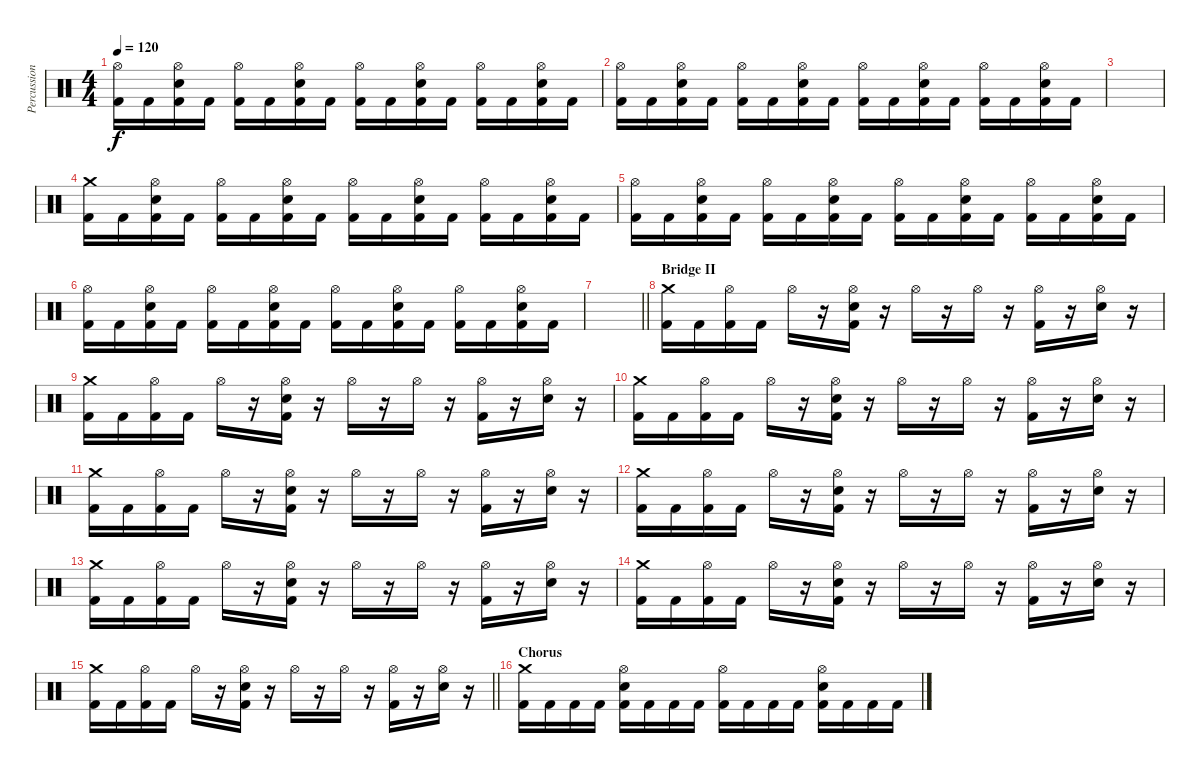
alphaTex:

\track ("Percussion" "Percussion") {instrument percussion}
\staff {score}
\articulation defaults
\ts (4 4)
\tempo 120
\clef neutral
\ks c
("Hi-Hat (open)" "Kick (hit) 2").16{dy f} "Kick (hit) 2".16 ("Hi-Hat (open)" "Electric Snare (hit)" "Kick (hit) 2").16 "Kick (hit) 2".16 ("Hi-Hat (open)" "Kick (hit) 2").16 "Kick (hit) 2".16 ("Hi-Hat (open)" "Electric Snare (hit)" "Kick (hit) 2").16 "Kick (hit) 2".16 ("Hi-Hat (open)" "Kick (hit) 2").16 "Kick (hit) 2".16 ("Hi-Hat (open)" "Electric Snare (hit)" "Kick (hit) 2").16 "Kick (hit) 2".16 ("Hi-Hat (open)" "Kick (hit) 2").16 "Kick (hit) 2".16 ("Hi-Hat (open)" "Electric Snare (hit)" "Kick (hit) 2").16 "Kick (hit) 2".16 |
("Hi-Hat (open)" "Kick (hit) 2").16 "Kick (hit) 2".16 ("Hi-Hat (open)" "Electric Snare (hit)" "Kick (hit) 2").16 "Kick (hit) 2".16 ("Hi-Hat (open)" "Kick (hit) 2").16 "Kick (hit) 2".16 ("Hi-Hat (open)" "Electric Snare (hit)" "Kick (hit) 2").16 "Kick (hit) 2".16 ("Hi-Hat (open)" "Kick (hit) 2").16 "Kick (hit) 2".16 ("Hi-Hat (open)" "Electric Snare (hit)" "Kick (hit) 2").16 "Kick (hit) 2".16 ("Hi-Hat (open)" "Kick (hit) 2").16 "Kick (hit) 2".16 ("Hi-Hat (open)" "Electric Snare (hit)" "Kick (hit) 2").16 "Kick (hit) 2".16 |
|
("Crash medium (hit)" "Kick (hit) 2").16 "Kick (hit) 2".16 ("Hi-Hat (open)" "Electric Snare (hit)" "Kick (hit) 2").16 "Kick (hit) 2".16 ("Hi-Hat (open)" "Kick (hit) 2").16 "Kick (hit) 2".16 ("Hi-Hat (open)" "Electric Snare (hit)" "Kick (hit) 2").16 "Kick (hit) 2".16 ("Hi-Hat (open)" "Kick (hit) 2").16 "Kick (hit) 2".16 ("Hi-Hat (open)" "Electric Snare (hit)" "Kick (hit) 2").16 "Kick (hit) 2".16 ("Hi-Hat (open)" "Kick (hit) 2").16 "Kick (hit) 2".16 ("Hi-Hat (open)" "Electric Snare (hit)" "Kick (hit) 2").16 "Kick (hit) 2".16 |
("Hi-Hat (open)" "Kick (hit) 2").16 "Kick (hit) 2".16 ("Hi-Hat (open)" "Electric Snare (hit)" "Kick (hit) 2").16 "Kick (hit) 2".16 ("Hi-Hat (open)" "Kick (hit) 2").16 "Kick (hit) 2".16 ("Hi-Hat (open)" "Electric Snare (hit)" "Kick (hit) 2").16 "Kick (hit) 2".16 ("Hi-Hat (open)" "Kick (hit) 2").16 "Kick (hit) 2".16 ("Hi-Hat (open)" "Electric Snare (hit)" "Kick (hit) 2").16 "Kick (hit) 2".16 ("Hi-Hat (open)" "Kick (hit) 2").16 "Kick (hit) 2".16 ("Hi-Hat (open)" "Electric Snare (hit)" "Kick (hit) 2").16 "Kick (hit) 2".16 |
("Hi-Hat (open)" "Kick (hit) 2").16 "Kick (hit) 2".16 ("Hi-Hat (open)" "Electric Snare (hit)" "Kick (hit) 2").16 "Kick (hit) 2".16 ("Hi-Hat (open)" "Kick (hit) 2").16 "Kick (hit) 2".16 ("Hi-Hat (open)" "Electric Snare (hit)" "Kick (hit) 2").16 "Kick (hit) 2".16 ("Hi-Hat (open)" "Kick (hit) 2").16 "Kick (hit) 2".16 ("Hi-Hat (open)" "Electric Snare (hit)" "Kick (hit) 2").16 "Kick (hit) 2".16 ("Hi-Hat (open)" "Kick (hit) 2").16 "Kick (hit) 2".16 ("Hi-Hat (open)" "Electric Snare (hit)" "Kick (hit) 2").16 "Kick (hit) 2".16 |
\barLineRight lightlight
|
\section ("" "Bridge II")
("Crash medium (hit)" "Kick (hit) 2").16 "Kick (hit) 2".16 ("Hi-Hat (open)" "Kick (hit) 2").16 "Kick (hit) 2".16 "Hi-Hat (open)".16 r.16 ("Hi-Hat (open)" "Electric Snare (hit)" "Kick (hit) 2").16 r.16 "Hi-Hat (open)".16 r.16 "Hi-Hat (open)".16 r.16 ("Hi-Hat (open)" "Kick (hit) 2").16 r.16 ("Hi-Hat (open)" "Electric Snare (hit)").16 r.16 |
("Crash medium (hit)" "Kick (hit) 2").16 "Kick (hit) 2".16 ("Hi-Hat (open)" "Kick (hit) 2").16 "Kick (hit) 2".16 "Hi-Hat (open)".16 r.16 ("Hi-Hat (open)" "Electric Snare (hit)" "Kick (hit) 2").16 r.16 "Hi-Hat (open)".16 r.16 "Hi-Hat (open)".16 r.16 ("Hi-Hat (open)" "Kick (hit) 2").16 r.16 ("Hi-Hat (open)" "Electric Snare (hit)").16 r.16 |
("Crash medium (hit)" "Kick (hit) 2").16 "Kick (hit) 2".16 ("Hi-Hat (open)" "Kick (hit) 2").16 "Kick (hit) 2".16 "Hi-Hat (open)".16 r.16 ("Hi-Hat (open)" "Electric Snare (hit)" "Kick (hit) 2").16 r.16 "Hi-Hat (open)".16 r.16 "Hi-Hat (open)".16 r.16 ("Hi-Hat (open)" "Kick (hit) 2").16 r.16 ("Hi-Hat (open)" "Electric Snare (hit)").16 r.16 |
("Crash medium (hit)" "Kick (hit) 2").16 "Kick (hit) 2".16 ("Hi-Hat (open)" "Kick (hit) 2").16 "Kick (hit) 2".16 "Hi-Hat (open)".16 r.16 ("Hi-Hat (open)" "Electric Snare (hit)" "Kick (hit) 2").16 r.16 "Hi-Hat (open)".16 r.16 "Hi-Hat (open)".16 r.16 ("Hi-Hat (open)" "Kick (hit) 2").16 r.16 ("Hi-Hat (open)" "Electric Snare (hit)").16 r.16 |
("Crash medium (hit)" "Kick (hit) 2").16 "Kick (hit) 2".16 ("Hi-Hat (open)" "Kick (hit) 2").16 "Kick (hit) 2".16 "Hi-Hat (open)".16 r.16 ("Hi-Hat (open)" "Electric Snare (hit)" "Kick (hit) 2").16 r.16 "Hi-Hat (open)".16 r.16 "Hi-Hat (open)".16 r.16 ("Hi-Hat (open)" "Kick (hit) 2").16 r.16 ("Hi-Hat (open)" "Electric Snare (hit)").16 r.16 |
("Crash medium (hit)" "Kick (hit) 2").16 "Kick (hit) 2".16 ("Hi-Hat (open)" "Kick (hit) 2").16 "Kick (hit) 2".16 "Hi-Hat (open)".16 r.16 ("Hi-Hat (open)" "Electric Snare (hit)" "Kick (hit) 2").16 r.16 "Hi-Hat (open)".16 r.16 "Hi-Hat (open)".16 r.16 ("Hi-Hat (open)" "Kick (hit) 2").16 r.16 ("Hi-Hat (open)" "Electric Snare (hit)").16 r.16 |
("Crash medium (hit)" "Kick (hit) 2").16 "Kick (hit) 2".16 ("Hi-Hat (open)" "Kick (hit) 2").16 "Kick (hit) 2".16 "Hi-Hat (open)".16 r.16 ("Hi-Hat (open)" "Electric Snare (hit)" "Kick (hit) 2").16 r.16 "Hi-Hat (open)".16 r.16 "Hi-Hat (open)".16 r.16 ("Hi-Hat (open)" "Kick (hit) 2").16 r.16 ("Hi-Hat (open)" "Electric Snare (hit)").16 r.16 |
\barLineRight lightlight
("Crash medium (hit)" "Kick (hit) 2").16 "Kick (hit) 2".16 ("Hi-Hat (open)" "Kick (hit) 2").16 "Kick (hit) 2".16 "Hi-Hat (open)".16 r.16 ("Hi-Hat (open)" "Electric Snare (hit)" "Kick (hit) 2").16 r.16 "Hi-Hat (open)".16 r.16 "Hi-Hat (open)".16 r.16 ("Hi-Hat (open)" "Kick (hit) 2").16 r.16 ("Hi-Hat (open)" "Electric Snare (hit)").16 r.16 |
\section ("" "Chorus")
("Crash medium (hit)" "Kick (hit) 2").16 "Kick (hit) 2".16 "Kick (hit) 2".16 "Kick (hit) 2".16 ("Hi-Hat (open)" "Electric Snare (hit)" "Kick (hit) 2").16 "Kick (hit) 2".16 "Kick (hit) 2".16 "Kick (hit) 2".16 ("Hi-Hat (open)" "Kick (hit) 2").16 "Kick (hit) 2".16 "Kick (hit) 2".16 "Kick (hit) 2".16 ("Hi-Hat (open)" "Electric Snare (hit)" "Kick (hit) 2").16 "Kick (hit) 2".16 "Kick (hit) 2".16 "Kick (hit) 2".16
